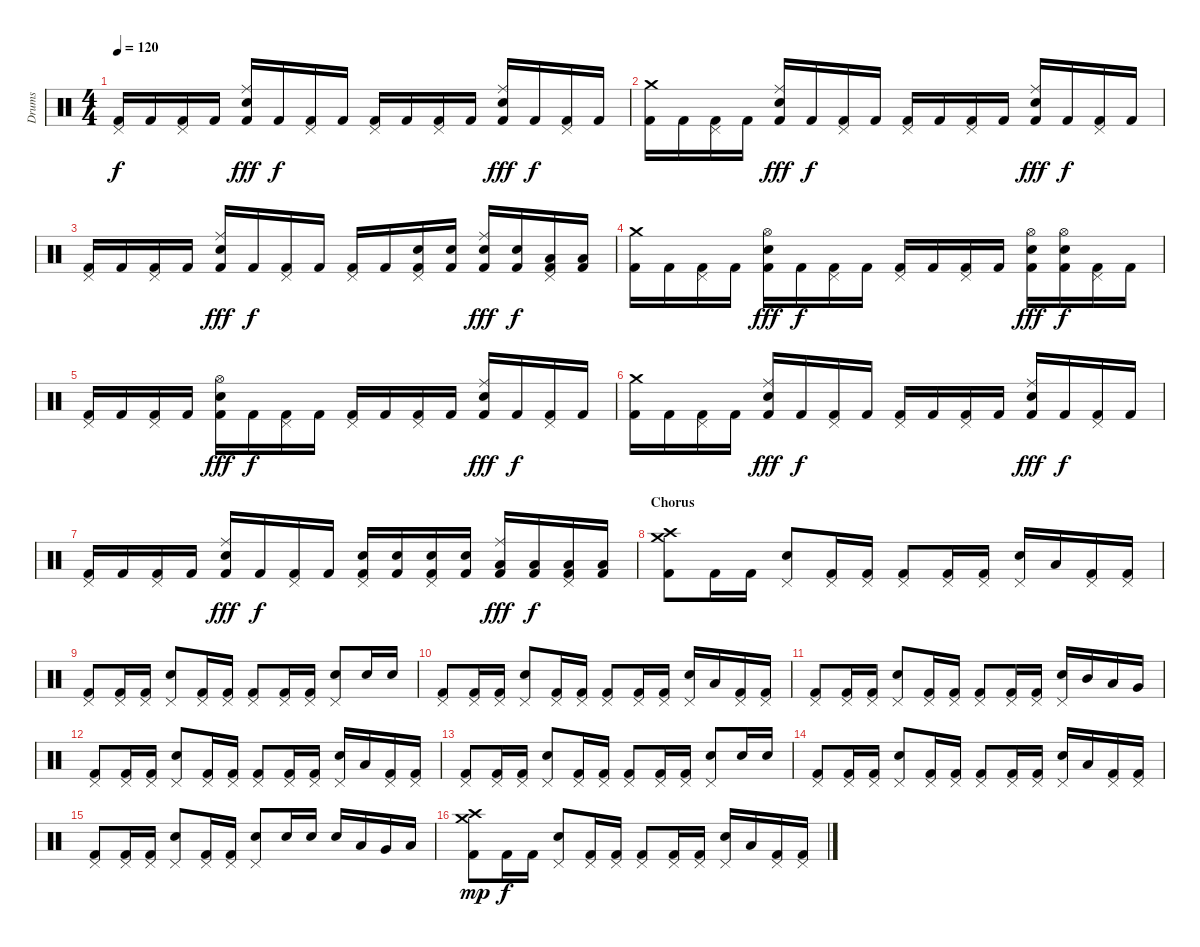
\track ("Drums" "Drums") {instrument percussion}
\staff {score}
\articulation defaults
\ts (4 4)
\tempo 120
\clef neutral
\ks c
("Pedal Hi-Hat (hit)" "Kick (hit) 2").16{dy f} "Kick (hit) 2".16 ("Pedal Hi-Hat (hit)" "Kick (hit) 2").16 "Kick (hit) 2".16 ("Ride (middle)" "Electric Snare (hit)" "Kick (hit) 2").16{dy fff} "Kick (hit) 2".16{dy f} ("Pedal Hi-Hat (hit)" "Kick (hit) 2").16 "Kick (hit) 2".16 ("Pedal Hi-Hat (hit)" "Kick (hit) 2").16 "Kick (hit) 2".16 ("Pedal Hi-Hat (hit)" "Kick (hit) 2").16 "Kick (hit) 2".16 ("Ride (middle)" "Electric Snare (hit)" "Kick (hit) 2").16{dy fff} "Kick (hit) 2".16{dy f} ("Pedal Hi-Hat (hit)" "Kick (hit) 2").16 "Kick (hit) 2".16 |
("Crash medium (hit)" "Kick (hit) 2").16 "Kick (hit) 2".16 ("Pedal Hi-Hat (hit)" "Kick (hit) 2").16 "Kick (hit) 2".16 ("Ride (middle)" "Electric Snare (hit)" "Kick (hit) 2").16{dy fff} "Kick (hit) 2".16{dy f} ("Pedal Hi-Hat (hit)" "Kick (hit) 2").16 "Kick (hit) 2".16 ("Pedal Hi-Hat (hit)" "Kick (hit) 2").16 "Kick (hit) 2".16 ("Pedal Hi-Hat (hit)" "Kick (hit) 2").16 "Kick (hit) 2".16 ("Ride (middle)" "Electric Snare (hit)" "Kick (hit) 2").16{dy fff} "Kick (hit) 2".16{dy f} ("Pedal Hi-Hat (hit)" "Kick (hit) 2").16 "Kick (hit) 2".16 |
("Pedal Hi-Hat (hit)" "Kick (hit) 2").16 "Kick (hit) 2".16 ("Pedal Hi-Hat (hit)" "Kick (hit) 2").16 "Kick (hit) 2".16 ("Ride (middle)" "Electric Snare (hit)" "Kick (hit) 2").16{dy fff} "Kick (hit) 2".16{dy f} ("Pedal Hi-Hat (hit)" "Kick (hit) 2").16 "Kick (hit) 2".16 ("Pedal Hi-Hat (hit)" "Kick (hit) 2").16 "Kick (hit) 2".16 ("Pedal Hi-Hat (hit)" "Electric Snare (hit)" "Kick (hit) 2").16 ("Electric Snare (hit)" "Kick (hit) 2").16 ("Ride (middle)" "Snare (hit) 2" "Kick (hit) 2").16{dy fff} ("Snare (hit) 2" "Kick (hit) 2").16{dy f} ("Pedal Hi-Hat (hit)" "Low Tom (hit)" "Kick (hit) 2").16 ("Low Tom (hit)" "Kick (hit) 2").16 |
("Crash medium (hit)" "Kick (hit) 2").16 "Kick (hit) 2".16 ("Pedal Hi-Hat (hit)" "Kick (hit) 2").16 "Kick (hit) 2".16 ("Hi-Hat (open)" "Electric Snare (hit)" "Kick (hit) 2").16{dy fff} "Kick (hit) 2".16{dy f} ("Pedal Hi-Hat (hit)" "Kick (hit) 2").16 "Kick (hit) 2".16 ("Pedal Hi-Hat (hit)" "Kick (hit) 2").16 "Kick (hit) 2".16 ("Pedal Hi-Hat (hit)" "Kick (hit) 2").16 "Kick (hit) 2".16 ("Hi-Hat (open)" "Electric Snare (hit)" "Kick (hit) 2").16{dy fff} ("Hi-Hat (open)" "Electric Snare (hit)" "Kick (hit) 2").16{dy f} ("Pedal Hi-Hat (hit)" "Kick (hit) 2").16 "Kick (hit) 2".16 |
("Pedal Hi-Hat (hit)" "Kick (hit) 2").16 "Kick (hit) 2".16 ("Pedal Hi-Hat (hit)" "Kick (hit) 2").16 "Kick (hit) 2".16 ("Hi-Hat (open)" "Electric Snare (hit)" "Kick (hit) 2").16{dy fff} "Kick (hit) 2".16{dy f} ("Pedal Hi-Hat (hit)" "Kick (hit) 2").16 "Kick (hit) 2".16 ("Pedal Hi-Hat (hit)" "Kick (hit) 2").16 "Kick (hit) 2".16 ("Pedal Hi-Hat (hit)" "Kick (hit) 2").16 "Kick (hit) 2".16 ("Ride (middle)" "Electric Snare (hit)" "Kick (hit) 2").16{dy fff} "Kick (hit) 2".16{dy f} ("Pedal Hi-Hat (hit)" "Kick (hit) 2").16 "Kick (hit) 2".16 |
("Crash medium (hit)" "Kick (hit) 2").16 "Kick (hit) 2".16 ("Pedal Hi-Hat (hit)" "Kick (hit) 2").16 "Kick (hit) 2".16 ("Ride (middle)" "Electric Snare (hit)" "Kick (hit) 2").16{dy fff} "Kick (hit) 2".16{dy f} ("Pedal Hi-Hat (hit)" "Kick (hit) 2").16 "Kick (hit) 2".16 ("Pedal Hi-Hat (hit)" "Kick (hit) 2").16 "Kick (hit) 2".16 ("Pedal Hi-Hat (hit)" "Kick (hit) 2").16 "Kick (hit) 2".16 ("Ride (middle)" "Electric Snare (hit)" "Kick (hit) 2").16{dy fff} "Kick (hit) 2".16{dy f} ("Pedal Hi-Hat (hit)" "Kick (hit) 2").16 "Kick (hit) 2".16 |
("Pedal Hi-Hat (hit)" "Kick (hit) 2").16 "Kick (hit) 2".16 ("Pedal Hi-Hat (hit)" "Kick (hit) 2").16 "Kick (hit) 2".16 ("Ride (middle)" "Electric Snare (hit)" "Kick (hit) 2").16{dy fff} "Kick (hit) 2".16{dy f} ("Pedal Hi-Hat (hit)" "Kick (hit) 2").16 "Kick (hit) 2".16 ("Pedal Hi-Hat (hit)" "Electric Snare (hit)" "Kick (hit) 2").16 ("Electric Snare (hit)" "Kick (hit) 2").16 ("Pedal Hi-Hat (hit)" "Electric Snare (hit)" "Kick (hit) 2").16 ("Electric Snare (hit)" "Kick (hit) 2").16 ("Ride (middle)" "Low Tom (hit)" "Kick (hit) 2").16{dy fff} ("Low Tom (hit)" "Kick (hit) 2").16{dy f} ("Pedal Hi-Hat (hit)" "Low Tom (hit)" "Kick (hit) 2").16 ("Low Tom (hit)" "Kick (hit) 2").16 |
\section ("" "Chorus")
("Crash medium (hit)" "Crash high (hit)" "Kick (hit) 2").8 "Kick (hit) 2".16 "Kick (hit) 2".16 ("Pedal Hi-Hat (hit)" "Electric Snare (hit)").8 ("Pedal Hi-Hat (hit)" "Kick (hit) 2").16 ("Pedal Hi-Hat (hit)" "Kick (hit) 2").16 ("Pedal Hi-Hat (hit)" "Kick (hit) 2").8 ("Pedal Hi-Hat (hit)" "Kick (hit) 2").16 ("Pedal Hi-Hat (hit)" "Kick (hit) 2").16 ("Pedal Hi-Hat (hit)" "Electric Snare (hit)").16 "Low Tom (hit)".16 ("Pedal Hi-Hat (hit)" "Kick (hit) 2").16 ("Pedal Hi-Hat (hit)" "Kick (hit) 2").16 |
("Pedal Hi-Hat (hit)" "Kick (hit) 2").8 ("Pedal Hi-Hat (hit)" "Kick (hit) 2").16 ("Pedal Hi-Hat (hit)" "Kick (hit) 2").16 ("Pedal Hi-Hat (hit)" "Electric Snare (hit)").8 ("Pedal Hi-Hat (hit)" "Kick (hit) 2").16 ("Pedal Hi-Hat (hit)" "Kick (hit) 2").16 ("Pedal Hi-Hat (hit)" "Kick (hit) 2").8 ("Pedal Hi-Hat (hit)" "Kick (hit) 2").16 ("Pedal Hi-Hat (hit)" "Kick (hit) 2").16 ("Pedal Hi-Hat (hit)" "Electric Snare (hit)").8 "Electric Snare (hit)".16 "Electric Snare (hit)".16 |
("Pedal Hi-Hat (hit)" "Kick (hit) 2").8 ("Pedal Hi-Hat (hit)" "Kick (hit) 2").16 ("Pedal Hi-Hat (hit)" "Kick (hit) 2").16 ("Pedal Hi-Hat (hit)" "Electric Snare (hit)").8 ("Pedal Hi-Hat (hit)" "Kick (hit) 2").16 ("Pedal Hi-Hat (hit)" "Kick (hit) 2").16 ("Pedal Hi-Hat (hit)" "Kick (hit) 2").8 ("Pedal Hi-Hat (hit)" "Kick (hit) 2").16 ("Pedal Hi-Hat (hit)" "Kick (hit) 2").16 ("Pedal Hi-Hat (hit)" "Electric Snare (hit)").16 "Low Tom (hit)".16 ("Pedal Hi-Hat (hit)" "Kick (hit) 2").16 ("Pedal Hi-Hat (hit)" "Kick (hit) 2").16 |
("Pedal Hi-Hat (hit)" "Kick (hit) 2").8 ("Pedal Hi-Hat (hit)" "Kick (hit) 2").16 ("Pedal Hi-Hat (hit)" "Kick (hit) 2").16 ("Pedal Hi-Hat (hit)" "Electric Snare (hit)").8 ("Pedal Hi-Hat (hit)" "Kick (hit) 2").16 ("Pedal Hi-Hat (hit)" "Kick (hit) 2").16 ("Pedal Hi-Hat (hit)" "Kick (hit) 2").8 ("Pedal Hi-Hat (hit)" "Kick (hit) 2").16 ("Pedal Hi-Hat (hit)" "Kick (hit) 2").16 ("Pedal Hi-Hat (hit)" "Electric Snare (hit)").16 "Mid Tom (hit)".16 "Low Tom (hit)".16 "Very Low Tom (hit)".16 |
("Pedal Hi-Hat (hit)" "Kick (hit) 2").8 ("Pedal Hi-Hat (hit)" "Kick (hit) 2").16 ("Pedal Hi-Hat (hit)" "Kick (hit) 2").16 ("Pedal Hi-Hat (hit)" "Electric Snare (hit)").8 ("Pedal Hi-Hat (hit)" "Kick (hit) 2").16 ("Pedal Hi-Hat (hit)" "Kick (hit) 2").16 ("Pedal Hi-Hat (hit)" "Kick (hit) 2").8 ("Pedal Hi-Hat (hit)" "Kick (hit) 2").16 ("Pedal Hi-Hat (hit)" "Kick (hit) 2").16 ("Pedal Hi-Hat (hit)" "Electric Snare (hit)").16 "Low Tom (hit)".16 ("Pedal Hi-Hat (hit)" "Kick (hit) 2").16 ("Pedal Hi-Hat (hit)" "Kick (hit) 2").16 |
("Pedal Hi-Hat (hit)" "Kick (hit) 2").8 ("Pedal Hi-Hat (hit)" "Kick (hit) 2").16 ("Pedal Hi-Hat (hit)" "Kick (hit) 2").16 ("Pedal Hi-Hat (hit)" "Electric Snare (hit)").8 ("Pedal Hi-Hat (hit)" "Kick (hit) 2").16 ("Pedal Hi-Hat (hit)" "Kick (hit) 2").16 ("Pedal Hi-Hat (hit)" "Kick (hit) 2").8 ("Pedal Hi-Hat (hit)" "Kick (hit) 2").16 ("Pedal Hi-Hat (hit)" "Kick (hit) 2").16 ("Pedal Hi-Hat (hit)" "Electric Snare (hit)").8 "Electric Snare (hit)".16 "Electric Snare (hit)".16 |
("Pedal Hi-Hat (hit)" "Kick (hit) 2").8 ("Pedal Hi-Hat (hit)" "Kick (hit) 2").16 ("Pedal Hi-Hat (hit)" "Kick (hit) 2").16 ("Pedal Hi-Hat (hit)" "Electric Snare (hit)").8 ("Pedal Hi-Hat (hit)" "Kick (hit) 2").16 ("Pedal Hi-Hat (hit)" "Kick (hit) 2").16 ("Pedal Hi-Hat (hit)" "Kick (hit) 2").8 ("Pedal Hi-Hat (hit)" "Kick (hit) 2").16 ("Pedal Hi-Hat (hit)" "Kick (hit) 2").16 ("Pedal Hi-Hat (hit)" "Electric Snare (hit)").16 "Low Tom (hit)".16 ("Pedal Hi-Hat (hit)" "Kick (hit) 2").16 ("Pedal Hi-Hat (hit)" "Kick (hit) 2").16 |
("Pedal Hi-Hat (hit)" "Kick (hit) 2").8 ("Pedal Hi-Hat (hit)" "Kick (hit) 2").16 ("Pedal Hi-Hat (hit)" "Kick (hit) 2").16 ("Pedal Hi-Hat (hit)" "Electric Snare (hit)").8 ("Pedal Hi-Hat (hit)" "Kick (hit) 2").16 ("Pedal Hi-Hat (hit)" "Kick (hit) 2").16 ("Pedal Hi-Hat (hit)" "Electric Snare (hit)").8 "Electric Snare (hit)".16 "Electric Snare (hit)".16 "Electric Snare (hit)".16 "Low Tom (hit)".16 "Very Low Tom (hit)".16 "Low Floor Tom (hit)".16 |
("Crash medium (hit)" "Crash high (hit)" "Kick (hit) 2").8{dy mp} "Kick (hit) 2".16{dy f} "Kick (hit) 2".16 ("Pedal Hi-Hat (hit)" "Electric Snare (hit)").8 ("Pedal Hi-Hat (hit)" "Kick (hit) 2").16 ("Pedal Hi-Hat (hit)" "Kick (hit) 2").16 ("Pedal Hi-Hat (hit)" "Kick (hit) 2").8 ("Pedal Hi-Hat (hit)" "Kick (hit) 2").16 ("Pedal Hi-Hat (hit)" "Kick (hit) 2").16 ("Pedal Hi-Hat (hit)" "Electric Snare (hit)").16 "Low Tom (hit)".16 ("Pedal Hi-Hat (hit)" "Kick (hit) 2").16 ("Pedal Hi-Hat (hit)" "Kick (hit) 2").16
